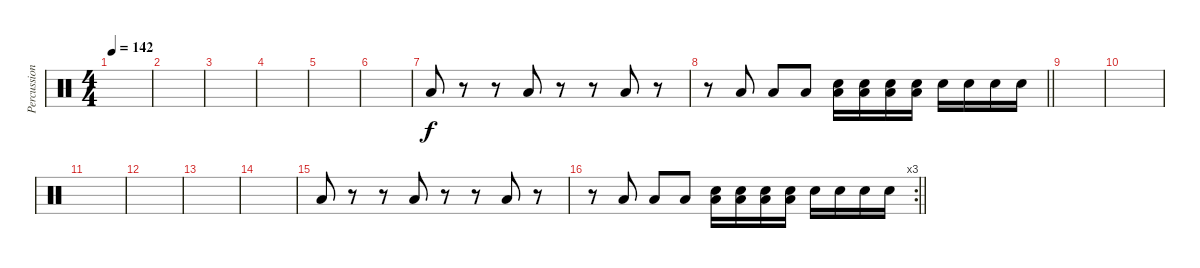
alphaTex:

\track ("Percussion" "Percussion") {instrument percussion}
\staff {score}
\articulation defaults
\ts (4 4)
\tempo 142
\clef neutral
\ks c
|
|
|
|
|
|
"Low Tom (hit)".8 r.8 r.8 "Low Tom (hit)".8 r.8 r.8 "Low Tom (hit)".8 r.8 |
\barLineRight lightlight
r.8 "Low Tom (hit)".8 "Low Tom (hit)".8 "Low Tom (hit)".8 ("Low Tom (hit)" "Snare (hit) 2").16 ("Low Tom (hit)" "Snare (hit) 2").16 ("Low Tom (hit)" "Snare (hit) 2").16 ("Low Tom (hit)" "Snare (hit) 2").16 "Snare (hit) 2".16 "Snare (hit) 2".16 "Snare (hit) 2".16 "Snare (hit) 2".16 |
|
|
|
|
|
|
"Low Tom (hit)".8 r.8 r.8 "Low Tom (hit)".8 r.8 r.8 "Low Tom (hit)".8 r.8 |
\rc 3
\barLineRight lightlight
r.8 "Low Tom (hit)".8 "Low Tom (hit)".8 "Low Tom (hit)".8 ("Low Tom (hit)" "Snare (hit) 2").16 ("Low Tom (hit)" "Snare (hit) 2").16 ("Low Tom (hit)" "Snare (hit) 2").16 ("Low Tom (hit)" "Snare (hit) 2").16 "Snare (hit) 2".16 "Snare (hit) 2".16 "Snare (hit) 2".16 "Snare (hit) 2".16
